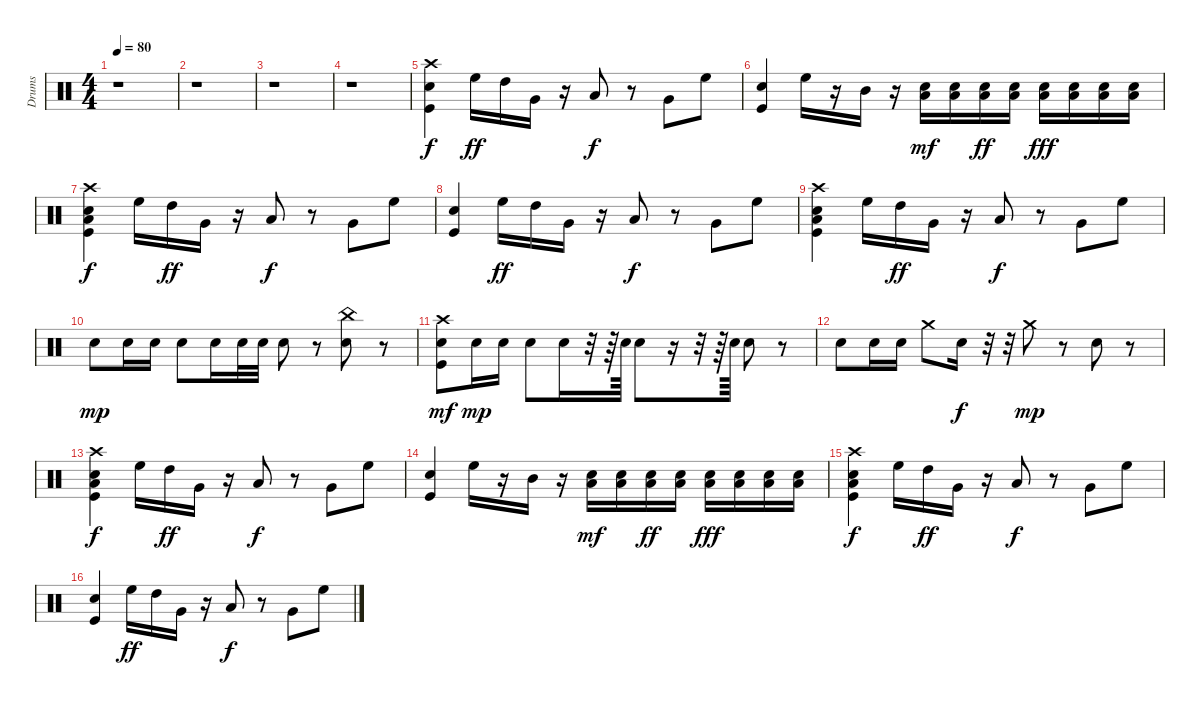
\track ("Drums" "Drums") {instrument percussion}
\staff {score}
\articulation defaults
\ts (4 4)
\tempo 80
\clef neutral
\ks c
r.1{dy f} |
r.1 |
r.1 |
r.1 |
("Crash high (hit)" "Snare (hit) 2" "Kick (hit)").4 "High Floor Tom (hit)".16{dy ff} "High Tom (hit)".16 "Very Low Tom (hit)".16 r.16 "Low Floor Tom (hit)".8{dy f} r.8 "Very Low Tom (hit)".8 "High Floor Tom (hit)".8 |
("Snare (hit) 2" "Kick (hit)").4 "High Floor Tom (hit)".16 r.16 "Mid Tom (hit)".16 r.16 ("Low Floor Tom (hit)" "Snare (hit) 2").16{dy mf} ("Low Floor Tom (hit)" "Snare (hit) 2").16 ("Low Floor Tom (hit)" "Snare (hit) 2").16{dy ff} ("Low Floor Tom (hit)" "Snare (hit) 2").16 ("Low Floor Tom (hit)" "Snare (hit) 2").16{dy fff} ("Low Floor Tom (hit)" "Snare (hit) 2").16 ("Low Floor Tom (hit)" "Snare (hit) 2").16 ("Low Floor Tom (hit)" "Snare (hit) 2").16 |
("Crash high (hit)" "Low Floor Tom (hit)" "Snare (hit) 2" "Kick (hit)").4{dy f} "High Floor Tom (hit)".16 "High Tom (hit)".16{dy ff} "Very Low Tom (hit)".16 r.16 "Low Floor Tom (hit)".8{dy f} r.8 "Very Low Tom (hit)".8 "High Floor Tom (hit)".8 |
("Snare (hit) 2" "Kick (hit)").4 "High Floor Tom (hit)".16{dy ff} "High Tom (hit)".16 "Very Low Tom (hit)".16 r.16 "Low Floor Tom (hit)".8{dy f} r.8 "Very Low Tom (hit)".8 "High Floor Tom (hit)".8 |
("Crash high (hit)" "Low Floor Tom (hit)" "Snare (hit) 2" "Kick (hit)").4 "High Floor Tom (hit)".16 "High Tom (hit)".16{dy ff} "Very Low Tom (hit)".16 r.16 "Low Floor Tom (hit)".8{dy f} r.8 "Very Low Tom (hit)".8 "High Floor Tom (hit)".8 |
"Snare (hit) 2".8{dy mp} "Snare (hit) 2".16 "Snare (hit) 2".16 "Snare (hit) 2".8 "Snare (hit) 2".16 "Snare (hit) 2".32 "Snare (hit) 2".32 "Snare (hit) 2".8 r.8 ("China (hit)" "Snare (hit) 2").8 r.8 |
("Crash high (hit)" "Snare (hit) 2" "Kick (hit)").8{dy mf} "Snare (hit) 2".16{dy mp} "Snare (hit) 2".16 "Snare (hit) 2".8 "Snare (hit) 2".16 r.32 r.64 "Snare (hit) 2".64 "Snare (hit) 2".8 r.16 r.32 r.64 "Snare (hit) 2".64 "Snare (hit) 2".8 r.8 |
"Snare (hit) 2".8 "Snare (hit) 2".16 "Snare (hit) 2".16 "Crash medium (hit)".8 "Snare (hit) 2".16{dy f} r.32 r.32 "Crash medium (hit)".8{dy mp} r.8 "Snare (hit) 2".8 r.8 |
("Crash high (hit)" "Low Floor Tom (hit)" "Snare (hit) 2" "Kick (hit)").4{dy f} "High Floor Tom (hit)".16 "High Tom (hit)".16{dy ff} "Very Low Tom (hit)".16 r.16 "Low Floor Tom (hit)".8{dy f} r.8 "Very Low Tom (hit)".8 "High Floor Tom (hit)".8 |
("Snare (hit) 2" "Kick (hit)").4 "High Floor Tom (hit)".16 r.16 "Mid Tom (hit)".16 r.16 ("Low Floor Tom (hit)" "Snare (hit) 2").16{dy mf} ("Low Floor Tom (hit)" "Snare (hit) 2").16 ("Low Floor Tom (hit)" "Snare (hit) 2").16{dy ff} ("Low Floor Tom (hit)" "Snare (hit) 2").16 ("Low Floor Tom (hit)" "Snare (hit) 2").16{dy fff} ("Low Floor Tom (hit)" "Snare (hit) 2").16 ("Low Floor Tom (hit)" "Snare (hit) 2").16 ("Low Floor Tom (hit)" "Snare (hit) 2").16 |
("Crash high (hit)" "Low Floor Tom (hit)" "Snare (hit) 2" "Kick (hit)").4{dy f} "High Floor Tom (hit)".16 "High Tom (hit)".16{dy ff} "Very Low Tom (hit)".16 r.16 "Low Floor Tom (hit)".8{dy f} r.8 "Very Low Tom (hit)".8 "High Floor Tom (hit)".8 |
("Snare (hit) 2" "Kick (hit)").4 "High Floor Tom (hit)".16{dy ff} "High Tom (hit)".16 "Very Low Tom (hit)".16 r.16 "Low Floor Tom (hit)".8{dy f} r.8 "Very Low Tom (hit)".8 "High Floor Tom (hit)".8
